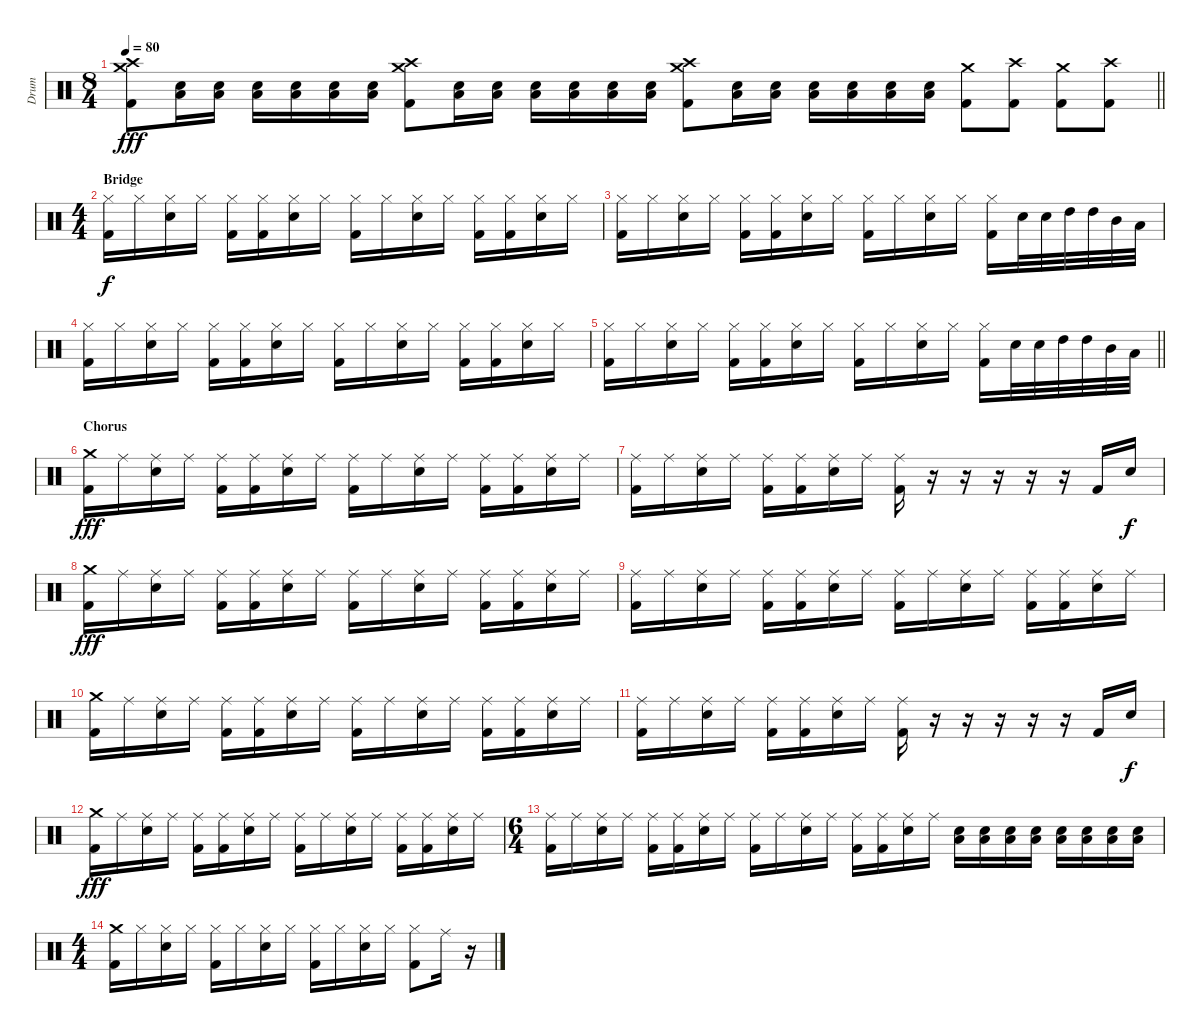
\track ("Drum" "Drum") {instrument percussion}
\staff {score}
\articulation defaults
\ts (8 4)
\tempo 80
\clef neutral
\barLineRight lightlight
\ks c
("Crash medium (hit)" "Crash high (hit)" "Kick (hit) 2").8{dy fff} ("Snare (hit) 2" "Low Tom (hit)").16 ("Snare (hit) 2" "Low Tom (hit)").16 ("Snare (hit) 2" "Low Tom (hit)").16 ("Snare (hit) 2" "Low Tom (hit)").16 ("Snare (hit) 2" "Low Tom (hit)").16 ("Snare (hit) 2" "Low Tom (hit)").16 ("Crash medium (hit)" "Crash high (hit)" "Kick (hit) 2").8 ("Snare (hit) 2" "Low Tom (hit)").16 ("Snare (hit) 2" "Low Tom (hit)").16 ("Snare (hit) 2" "Low Tom (hit)").16 ("Snare (hit) 2" "Low Tom (hit)").16 ("Snare (hit) 2" "Low Tom (hit)").16 ("Snare (hit) 2" "Low Tom (hit)").16 ("Crash medium (hit)" "Crash high (hit)" "Kick (hit) 2").8 ("Snare (hit) 2" "Low Tom (hit)").16 ("Snare (hit) 2" "Low Tom (hit)").16 ("Snare (hit) 2" "Low Tom (hit)").16 ("Snare (hit) 2" "Low Tom (hit)").16 ("Snare (hit) 2" "Low Tom (hit)").16 ("Snare (hit) 2" "Low Tom (hit)").16 ("Crash medium (hit)" "Kick (hit) 2").8 ("Crash high (hit)" "Kick (hit) 2").8 ("Crash medium (hit)" "Kick (hit) 2").8 ("Crash high (hit)" "Kick (hit) 2").8 |
\ts (4 4)
\section ("" "Bridge")
("Hi-Hat (closed)" "Kick (hit) 2").16{dy f} "Hi-Hat (closed)".16 ("Hi-Hat (closed)" "Snare (hit) 2").16 "Hi-Hat (closed)".16 ("Hi-Hat (closed)" "Kick (hit) 2").16 ("Hi-Hat (closed)" "Kick (hit) 2").16 ("Hi-Hat (closed)" "Snare (hit) 2").16 "Hi-Hat (closed)".16 ("Hi-Hat (closed)" "Kick (hit) 2").16 "Hi-Hat (closed)".16 ("Hi-Hat (closed)" "Snare (hit) 2").16 "Hi-Hat (closed)".16 ("Hi-Hat (closed)" "Kick (hit) 2").16 ("Hi-Hat (closed)" "Kick (hit) 2").16 ("Hi-Hat (closed)" "Snare (hit) 2").16 "Hi-Hat (closed)".16 |
("Hi-Hat (closed)" "Kick (hit) 2").16 "Hi-Hat (closed)".16 ("Hi-Hat (closed)" "Snare (hit) 2").16 "Hi-Hat (closed)".16 ("Hi-Hat (closed)" "Kick (hit) 2").16 ("Hi-Hat (closed)" "Kick (hit) 2").16 ("Hi-Hat (closed)" "Snare (hit) 2").16 "Hi-Hat (closed)".16 ("Hi-Hat (closed)" "Kick (hit) 2").16 "Hi-Hat (closed)".16 ("Hi-Hat (closed)" "Snare (hit) 2").16 "Hi-Hat (closed)".16 ("Hi-Hat (closed)" "Kick (hit) 2").16 "Snare (hit) 2".32 "Snare (hit) 2".32 "High Tom (hit)".32 "High Tom (hit)".32 "Mid Tom (hit)".32 "Low Tom (hit)".32 |
("Hi-Hat (closed)" "Kick (hit) 2").16 "Hi-Hat (closed)".16 ("Hi-Hat (closed)" "Snare (hit) 2").16 "Hi-Hat (closed)".16 ("Hi-Hat (closed)" "Kick (hit) 2").16 ("Hi-Hat (closed)" "Kick (hit) 2").16 ("Hi-Hat (closed)" "Snare (hit) 2").16 "Hi-Hat (closed)".16 ("Hi-Hat (closed)" "Kick (hit) 2").16 "Hi-Hat (closed)".16 ("Hi-Hat (closed)" "Snare (hit) 2").16 "Hi-Hat (closed)".16 ("Hi-Hat (closed)" "Kick (hit) 2").16 ("Hi-Hat (closed)" "Kick (hit) 2").16 ("Hi-Hat (closed)" "Snare (hit) 2").16 "Hi-Hat (closed)".16 |
\barLineRight lightlight
("Hi-Hat (closed)" "Kick (hit) 2").16 "Hi-Hat (closed)".16 ("Hi-Hat (closed)" "Snare (hit) 2").16 "Hi-Hat (closed)".16 ("Hi-Hat (closed)" "Kick (hit) 2").16 ("Hi-Hat (closed)" "Kick (hit) 2").16 ("Hi-Hat (closed)" "Snare (hit) 2").16 "Hi-Hat (closed)".16 ("Hi-Hat (closed)" "Kick (hit) 2").16 "Hi-Hat (closed)".16 ("Hi-Hat (closed)" "Snare (hit) 2").16 "Hi-Hat (closed)".16 ("Hi-Hat (closed)" "Kick (hit) 2").16 "Snare (hit) 2".32 "Snare (hit) 2".32 "High Tom (hit)".32 "High Tom (hit)".32 "Mid Tom (hit)".32 "Low Tom (hit)".32 |
\section ("" "Chorus")
("Crash medium (hit)" "Kick (hit) 2").16{dy fff} "Ride (middle)".16 ("Ride (middle)" "Snare (hit) 2").16 "Ride (middle)".16 ("Ride (middle)" "Kick (hit) 2").16 ("Ride (middle)" "Kick (hit) 2").16 ("Ride (middle)" "Snare (hit) 2").16 "Ride (middle)".16 ("Ride (middle)" "Kick (hit) 2").16 "Ride (middle)".16 ("Ride (middle)" "Snare (hit) 2").16 "Ride (middle)".16 ("Ride (middle)" "Kick (hit) 2").16 ("Ride (middle)" "Kick (hit) 2").16 ("Ride (middle)" "Snare (hit) 2").16 "Ride (middle)".16 |
("Ride (middle)" "Kick (hit) 2").16 "Ride (middle)".16 ("Ride (middle)" "Snare (hit) 2").16 "Ride (middle)".16 ("Ride (middle)" "Kick (hit) 2").16 ("Ride (middle)" "Kick (hit) 2").16 ("Ride (middle)" "Snare (hit) 2").16 "Ride (middle)".16 ("Ride (middle)" "Kick (hit) 2").16 r.16 r.16 r.16 r.16 r.16 "Kick (hit) 2".16 "Snare (hit) 2".16{dy f} |
("Crash medium (hit)" "Kick (hit) 2").16{dy fff} "Ride (middle)".16 ("Ride (middle)" "Snare (hit) 2").16 "Ride (middle)".16 ("Ride (middle)" "Kick (hit) 2").16 ("Ride (middle)" "Kick (hit) 2").16 ("Ride (middle)" "Snare (hit) 2").16 "Ride (middle)".16 ("Ride (middle)" "Kick (hit) 2").16 "Ride (middle)".16 ("Ride (middle)" "Snare (hit) 2").16 "Ride (middle)".16 ("Ride (middle)" "Kick (hit) 2").16 ("Ride (middle)" "Kick (hit) 2").16 ("Ride (middle)" "Snare (hit) 2").16 "Ride (middle)".16 |
("Ride (middle)" "Kick (hit) 2").16 "Ride (middle)".16 ("Ride (middle)" "Snare (hit) 2").16 "Ride (middle)".16 ("Ride (middle)" "Kick (hit) 2").16 ("Ride (middle)" "Kick (hit) 2").16 ("Ride (middle)" "Snare (hit) 2").16 "Ride (middle)".16 ("Ride (middle)" "Kick (hit) 2").16 "Ride (middle)".16 ("Ride (middle)" "Snare (hit) 2").16 "Ride (middle)".16 ("Ride (middle)" "Kick (hit) 2").16 ("Ride (middle)" "Kick (hit) 2").16 ("Ride (middle)" "Snare (hit) 2").16 "Ride (middle)".16 |
("Crash medium (hit)" "Kick (hit) 2").16 "Ride (middle)".16 ("Ride (middle)" "Snare (hit) 2").16 "Ride (middle)".16 ("Ride (middle)" "Kick (hit) 2").16 ("Ride (middle)" "Kick (hit) 2").16 ("Ride (middle)" "Snare (hit) 2").16 "Ride (middle)".16 ("Ride (middle)" "Kick (hit) 2").16 "Ride (middle)".16 ("Ride (middle)" "Snare (hit) 2").16 "Ride (middle)".16 ("Ride (middle)" "Kick (hit) 2").16 ("Ride (middle)" "Kick (hit) 2").16 ("Ride (middle)" "Snare (hit) 2").16 "Ride (middle)".16 |
("Ride (middle)" "Kick (hit) 2").16 "Ride (middle)".16 ("Ride (middle)" "Snare (hit) 2").16 "Ride (middle)".16 ("Ride (middle)" "Kick (hit) 2").16 ("Ride (middle)" "Kick (hit) 2").16 ("Ride (middle)" "Snare (hit) 2").16 "Ride (middle)".16 ("Ride (middle)" "Kick (hit) 2").16 r.16 r.16 r.16 r.16 r.16 "Kick (hit) 2".16 "Snare (hit) 2".16{dy f} |
("Crash medium (hit)" "Kick (hit) 2").16{dy fff} "Ride (middle)".16 ("Ride (middle)" "Snare (hit) 2").16 "Ride (middle)".16 ("Ride (middle)" "Kick (hit) 2").16 ("Ride (middle)" "Kick (hit) 2").16 ("Ride (middle)" "Snare (hit) 2").16 "Ride (middle)".16 ("Ride (middle)" "Kick (hit) 2").16 "Ride (middle)".16 ("Ride (middle)" "Snare (hit) 2").16 "Ride (middle)".16 ("Ride (middle)" "Kick (hit) 2").16 ("Ride (middle)" "Kick (hit) 2").16 ("Ride (middle)" "Snare (hit) 2").16 "Ride (middle)".16 |
\ts (6 4)
("Ride (middle)" "Kick (hit) 2").16 "Ride (middle)".16 ("Ride (middle)" "Snare (hit) 2").16 "Ride (middle)".16 ("Ride (middle)" "Kick (hit) 2").16 ("Ride (middle)" "Kick (hit) 2").16 ("Ride (middle)" "Snare (hit) 2").16 "Ride (middle)".16 ("Ride (middle)" "Kick (hit) 2").16 "Ride (middle)".16 ("Ride (middle)" "Snare (hit) 2").16 "Ride (middle)".16 ("Ride (middle)" "Kick (hit) 2").16 ("Ride (middle)" "Kick (hit) 2").16 ("Ride (middle)" "Snare (hit) 2").16 "Ride (middle)".16 ("Snare (hit) 2" "Low Tom (hit)").16 ("Snare (hit) 2" "Low Tom (hit)").16 ("Snare (hit) 2" "Low Tom (hit)").16 ("Snare (hit) 2" "Low Tom (hit)").16 ("Snare (hit) 2" "Low Tom (hit)").16 ("Snare (hit) 2" "Low Tom (hit)").16 ("Snare (hit) 2" "Low Tom (hit)").16 ("Snare (hit) 2" "Low Tom (hit)").16 |
\ts (4 4)
("Crash medium (hit)" "Kick (hit) 2").16 "Hi-Hat (closed)".16 ("Hi-Hat (closed)" "Snare (hit) 2").16 "Hi-Hat (closed)".16 ("Hi-Hat (closed)" "Kick (hit) 2").16 "Hi-Hat (closed)".16 ("Hi-Hat (closed)" "Snare (hit) 2").16 "Hi-Hat (closed)".16 ("Hi-Hat (closed)" "Kick (hit) 2").16 "Hi-Hat (closed)".16 ("Hi-Hat (closed)" "Snare (hit) 2").16 "Hi-Hat (closed)".16 ("Hi-Hat (closed)" "Kick (hit) 2").8 "Ride (middle)".16 r.16
